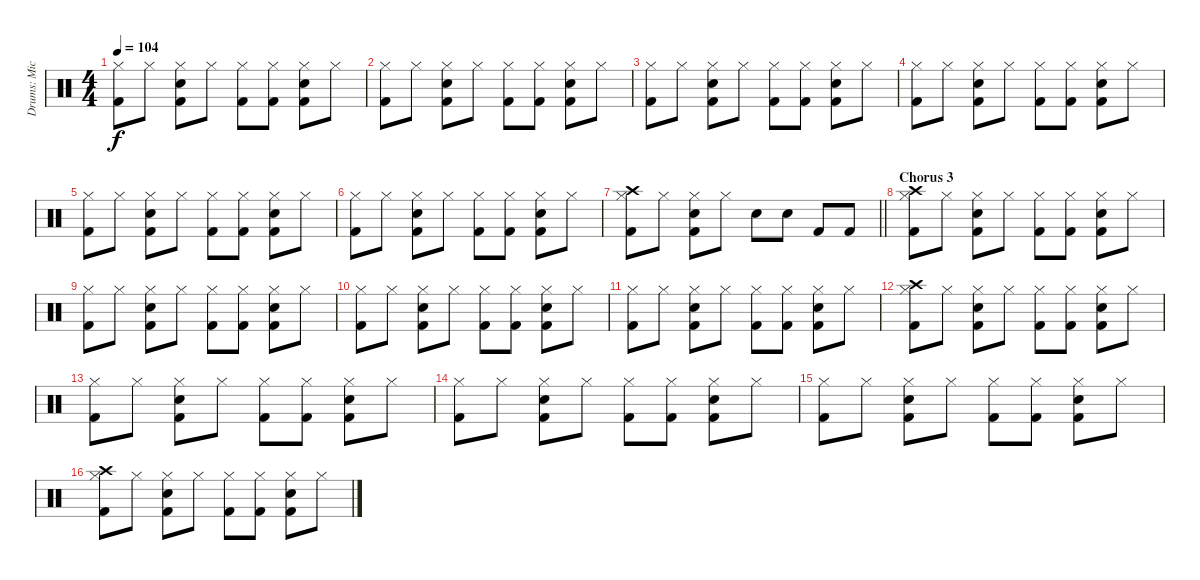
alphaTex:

\track ("Drums: Mick Fleetwood" "Drums: Mic") {instrument percussion}
\staff {score}
\articulation defaults
\ts (4 4)
\tempo 104
\clef neutral
\ks c
("Hi-Hat (closed)" "Kick (hit) 2").8{dy f} "Hi-Hat (closed)".8 ("Hi-Hat (closed)" "Snare (hit) 2" "Kick (hit) 2").8 "Hi-Hat (closed)".8 ("Hi-Hat (closed)" "Kick (hit) 2").8 ("Hi-Hat (closed)" "Kick (hit) 2").8 ("Hi-Hat (closed)" "Snare (hit) 2" "Kick (hit) 2").8 "Hi-Hat (closed)".8 |
("Hi-Hat (closed)" "Kick (hit) 2").8 "Hi-Hat (closed)".8 ("Hi-Hat (closed)" "Snare (hit) 2" "Kick (hit) 2").8 "Hi-Hat (closed)".8 ("Hi-Hat (closed)" "Kick (hit) 2").8 ("Hi-Hat (closed)" "Kick (hit) 2").8 ("Hi-Hat (closed)" "Snare (hit) 2" "Kick (hit) 2").8 "Hi-Hat (closed)".8 |
("Hi-Hat (closed)" "Kick (hit) 2").8 "Hi-Hat (closed)".8 ("Hi-Hat (closed)" "Snare (hit) 2" "Kick (hit) 2").8 "Hi-Hat (closed)".8 ("Hi-Hat (closed)" "Kick (hit) 2").8 ("Hi-Hat (closed)" "Kick (hit) 2").8 ("Hi-Hat (closed)" "Snare (hit) 2" "Kick (hit) 2").8 "Hi-Hat (closed)".8 |
("Hi-Hat (closed)" "Kick (hit) 2").8 "Hi-Hat (closed)".8 ("Hi-Hat (closed)" "Snare (hit) 2" "Kick (hit) 2").8 "Hi-Hat (closed)".8 ("Hi-Hat (closed)" "Kick (hit) 2").8 ("Hi-Hat (closed)" "Kick (hit) 2").8 ("Hi-Hat (closed)" "Snare (hit) 2" "Kick (hit) 2").8 "Hi-Hat (closed)".8 |
("Hi-Hat (closed)" "Kick (hit) 2").8 "Hi-Hat (closed)".8 ("Hi-Hat (closed)" "Snare (hit) 2" "Kick (hit) 2").8 "Hi-Hat (closed)".8 ("Hi-Hat (closed)" "Kick (hit) 2").8 ("Hi-Hat (closed)" "Kick (hit) 2").8 ("Hi-Hat (closed)" "Snare (hit) 2" "Kick (hit) 2").8 "Hi-Hat (closed)".8 |
("Hi-Hat (closed)" "Kick (hit) 2").8 "Hi-Hat (closed)".8 ("Hi-Hat (closed)" "Snare (hit) 2" "Kick (hit) 2").8 "Hi-Hat (closed)".8 ("Hi-Hat (closed)" "Kick (hit) 2").8 ("Hi-Hat (closed)" "Kick (hit) 2").8 ("Hi-Hat (closed)" "Snare (hit) 2" "Kick (hit) 2").8 "Hi-Hat (closed)".8 |
\barLineRight lightlight
("Crash high (hit)" "Hi-Hat (closed)" "Kick (hit) 2").8 "Hi-Hat (closed)".8 ("Hi-Hat (closed)" "Snare (hit) 2" "Kick (hit) 2").8 "Hi-Hat (closed)".8 "Snare (hit) 2".8 "Snare (hit) 2".8 "Kick (hit) 2".8 "Kick (hit) 2".8 |
\section ("" "Chorus 3")
("Crash high (hit)" "Hi-Hat (closed)" "Kick (hit) 2").8 "Hi-Hat (closed)".8 ("Hi-Hat (closed)" "Snare (hit) 2" "Kick (hit) 2").8 "Hi-Hat (closed)".8 ("Hi-Hat (closed)" "Kick (hit) 2").8 ("Hi-Hat (closed)" "Kick (hit) 2").8 ("Hi-Hat (closed)" "Snare (hit) 2" "Kick (hit) 2").8 "Hi-Hat (closed)".8 |
("Hi-Hat (closed)" "Kick (hit) 2").8 "Hi-Hat (closed)".8 ("Hi-Hat (closed)" "Snare (hit) 2" "Kick (hit) 2").8 "Hi-Hat (closed)".8 ("Hi-Hat (closed)" "Kick (hit) 2").8 ("Hi-Hat (closed)" "Kick (hit) 2").8 ("Hi-Hat (closed)" "Snare (hit) 2" "Kick (hit) 2").8 "Hi-Hat (closed)".8 |
("Hi-Hat (closed)" "Kick (hit) 2").8 "Hi-Hat (closed)".8 ("Hi-Hat (closed)" "Snare (hit) 2" "Kick (hit) 2").8 "Hi-Hat (closed)".8 ("Hi-Hat (closed)" "Kick (hit) 2").8 ("Hi-Hat (closed)" "Kick (hit) 2").8 ("Hi-Hat (closed)" "Snare (hit) 2" "Kick (hit) 2").8 "Hi-Hat (closed)".8 |
("Hi-Hat (closed)" "Kick (hit) 2").8 "Hi-Hat (closed)".8 ("Hi-Hat (closed)" "Snare (hit) 2" "Kick (hit) 2").8 "Hi-Hat (closed)".8 ("Hi-Hat (closed)" "Kick (hit) 2").8 ("Hi-Hat (closed)" "Kick (hit) 2").8 ("Hi-Hat (closed)" "Snare (hit) 2" "Kick (hit) 2").8 "Hi-Hat (closed)".8 |
("Crash high (hit)" "Hi-Hat (closed)" "Kick (hit) 2").8 "Hi-Hat (closed)".8 ("Hi-Hat (closed)" "Snare (hit) 2" "Kick (hit) 2").8 "Hi-Hat (closed)".8 ("Hi-Hat (closed)" "Kick (hit) 2").8 ("Hi-Hat (closed)" "Kick (hit) 2").8 ("Hi-Hat (closed)" "Snare (hit) 2" "Kick (hit) 2").8 "Hi-Hat (closed)".8 |
("Hi-Hat (closed)" "Kick (hit) 2").8 "Hi-Hat (closed)".8 ("Hi-Hat (closed)" "Snare (hit) 2" "Kick (hit) 2").8 "Hi-Hat (closed)".8 ("Hi-Hat (closed)" "Kick (hit) 2").8 ("Hi-Hat (closed)" "Kick (hit) 2").8 ("Hi-Hat (closed)" "Snare (hit) 2" "Kick (hit) 2").8 "Hi-Hat (closed)".8 |
("Hi-Hat (closed)" "Kick (hit) 2").8 "Hi-Hat (closed)".8 ("Hi-Hat (closed)" "Snare (hit) 2" "Kick (hit) 2").8 "Hi-Hat (closed)".8 ("Hi-Hat (closed)" "Kick (hit) 2").8 ("Hi-Hat (closed)" "Kick (hit) 2").8 ("Hi-Hat (closed)" "Snare (hit) 2" "Kick (hit) 2").8 "Hi-Hat (closed)".8 |
("Hi-Hat (closed)" "Kick (hit) 2").8 "Hi-Hat (closed)".8 ("Hi-Hat (closed)" "Snare (hit) 2" "Kick (hit) 2").8 "Hi-Hat (closed)".8 ("Hi-Hat (closed)" "Kick (hit) 2").8 ("Hi-Hat (closed)" "Kick (hit) 2").8 ("Hi-Hat (closed)" "Snare (hit) 2" "Kick (hit) 2").8 "Hi-Hat (closed)".8 |
("Crash high (hit)" "Hi-Hat (closed)" "Kick (hit) 2").8 "Hi-Hat (closed)".8 ("Hi-Hat (closed)" "Snare (hit) 2" "Kick (hit) 2").8 "Hi-Hat (closed)".8 ("Hi-Hat (closed)" "Kick (hit) 2").8 ("Hi-Hat (closed)" "Kick (hit) 2").8 ("Hi-Hat (closed)" "Snare (hit) 2" "Kick (hit) 2").8 "Hi-Hat (closed)".8
